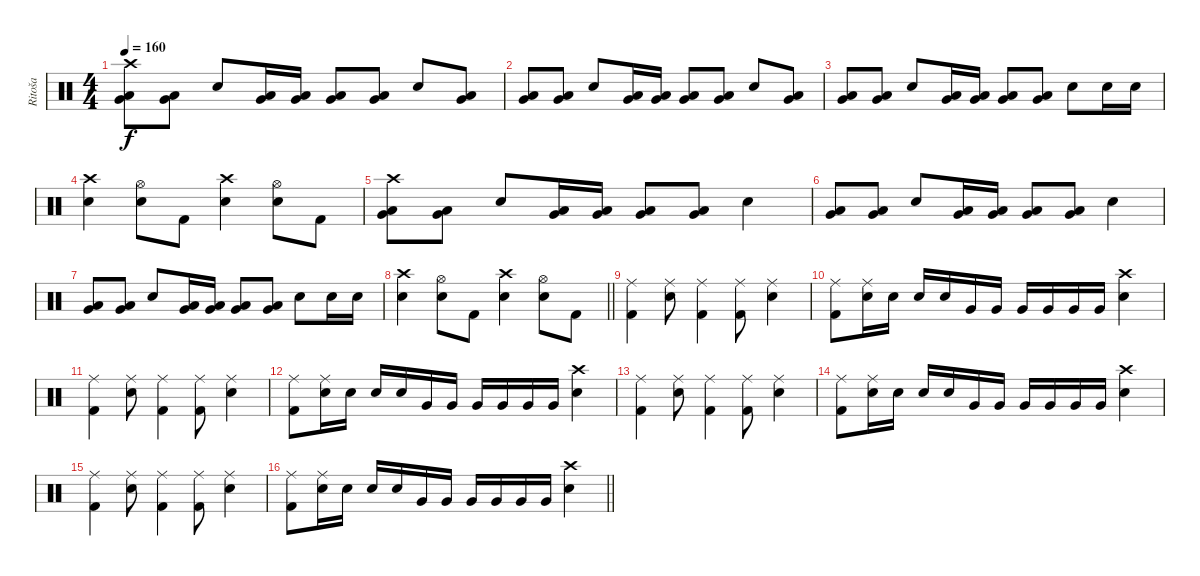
\track ("Ritoša" "Ritoša") {instrument percussion}
\staff {score}
\articulation defaults
\ts (4 4)
\tempo 160
\clef neutral
\ks c
("Crash high (hit)" "Low Floor Tom (hit)" "Very Low Tom (hit)").8{dy f} ("Low Floor Tom (hit)" "Very Low Tom (hit)").8 "Electric Snare (hit)".8 ("Low Floor Tom (hit)" "Very Low Tom (hit)").16 ("Low Floor Tom (hit)" "Very Low Tom (hit)").16 ("Low Floor Tom (hit)" "Very Low Tom (hit)").8 ("Low Floor Tom (hit)" "Very Low Tom (hit)").8 "Electric Snare (hit)".8 ("Low Floor Tom (hit)" "Very Low Tom (hit)").8 |
("Low Floor Tom (hit)" "Very Low Tom (hit)").8 ("Low Floor Tom (hit)" "Very Low Tom (hit)").8 "Electric Snare (hit)".8 ("Low Floor Tom (hit)" "Very Low Tom (hit)").16 ("Low Floor Tom (hit)" "Very Low Tom (hit)").16 ("Low Floor Tom (hit)" "Very Low Tom (hit)").8 ("Low Floor Tom (hit)" "Very Low Tom (hit)").8 "Electric Snare (hit)".8 ("Low Floor Tom (hit)" "Very Low Tom (hit)").8 |
("Low Floor Tom (hit)" "Very Low Tom (hit)").8 ("Low Floor Tom (hit)" "Very Low Tom (hit)").8 "Electric Snare (hit)".8 ("Low Floor Tom (hit)" "Very Low Tom (hit)").16 ("Low Floor Tom (hit)" "Very Low Tom (hit)").16 ("Low Floor Tom (hit)" "Very Low Tom (hit)").8 ("Low Floor Tom (hit)" "Very Low Tom (hit)").8 "Electric Snare (hit)".8 "Electric Snare (hit)".16 "Electric Snare (hit)".16 |
("Crash high (hit)" "Electric Snare (hit)").4 ("Hi-Hat (open)" "Electric Snare (hit)").8 "Kick (hit) 2".8 ("Crash high (hit)" "Electric Snare (hit)").4 ("Hi-Hat (open)" "Electric Snare (hit)").8 "Kick (hit) 2".8 |
("Crash high (hit)" "Low Floor Tom (hit)" "Very Low Tom (hit)").8 ("Low Floor Tom (hit)" "Very Low Tom (hit)").8 "Electric Snare (hit)".8 ("Low Floor Tom (hit)" "Very Low Tom (hit)").16 ("Low Floor Tom (hit)" "Very Low Tom (hit)").16 ("Low Floor Tom (hit)" "Very Low Tom (hit)").8 ("Low Floor Tom (hit)" "Very Low Tom (hit)").8 "Electric Snare (hit)".4 |
("Low Floor Tom (hit)" "Very Low Tom (hit)").8 ("Low Floor Tom (hit)" "Very Low Tom (hit)").8 "Electric Snare (hit)".8 ("Low Floor Tom (hit)" "Very Low Tom (hit)").16 ("Low Floor Tom (hit)" "Very Low Tom (hit)").16 ("Low Floor Tom (hit)" "Very Low Tom (hit)").8 ("Low Floor Tom (hit)" "Very Low Tom (hit)").8 "Electric Snare (hit)".4 |
("Low Floor Tom (hit)" "Very Low Tom (hit)").8 ("Low Floor Tom (hit)" "Very Low Tom (hit)").8 "Electric Snare (hit)".8 ("Low Floor Tom (hit)" "Very Low Tom (hit)").16 ("Low Floor Tom (hit)" "Very Low Tom (hit)").16 ("Low Floor Tom (hit)" "Very Low Tom (hit)").8 ("Low Floor Tom (hit)" "Very Low Tom (hit)").8 "Electric Snare (hit)".8 "Electric Snare (hit)".16 "Electric Snare (hit)".16 |
\barLineRight lightlight
("Crash high (hit)" "Electric Snare (hit)").4 ("Hi-Hat (open)" "Electric Snare (hit)").8 "Kick (hit) 2".8 ("Crash high (hit)" "Electric Snare (hit)").4 ("Hi-Hat (open)" "Electric Snare (hit)").8 "Kick (hit) 2".8 |
("Ride (middle)" "Kick (hit) 2").4 ("Ride (middle)" "Electric Snare (hit)").8 ("Ride (middle)" "Kick (hit) 2").4 ("Ride (middle)" "Kick (hit) 2").8 ("Ride (middle)" "Electric Snare (hit)").4 |
("Ride (middle)" "Kick (hit) 2").8 ("Ride (middle)" "Electric Snare (hit)").16 "Electric Snare (hit)".16 "Electric Snare (hit)".16 "Electric Snare (hit)".16 "Very Low Tom (hit)".16 "Very Low Tom (hit)".16 "Very Low Tom (hit)".16 "Very Low Tom (hit)".16 "Very Low Tom (hit)".16 "Very Low Tom (hit)".16 ("Crash high (hit)" "Electric Snare (hit)").4 |
("Ride (middle)" "Kick (hit) 2").4 ("Ride (middle)" "Electric Snare (hit)").8 ("Ride (middle)" "Kick (hit) 2").4 ("Ride (middle)" "Kick (hit) 2").8 ("Ride (middle)" "Electric Snare (hit)").4 |
("Ride (middle)" "Kick (hit) 2").8 ("Ride (middle)" "Electric Snare (hit)").16 "Electric Snare (hit)".16 "Electric Snare (hit)".16 "Electric Snare (hit)".16 "Very Low Tom (hit)".16 "Very Low Tom (hit)".16 "Very Low Tom (hit)".16 "Very Low Tom (hit)".16 "Very Low Tom (hit)".16 "Very Low Tom (hit)".16 ("Crash high (hit)" "Electric Snare (hit)").4 |
("Ride (middle)" "Kick (hit) 2").4 ("Ride (middle)" "Electric Snare (hit)").8 ("Ride (middle)" "Kick (hit) 2").4 ("Ride (middle)" "Kick (hit) 2").8 ("Ride (middle)" "Electric Snare (hit)").4 |
("Ride (middle)" "Kick (hit) 2").8 ("Ride (middle)" "Electric Snare (hit)").16 "Electric Snare (hit)".16 "Electric Snare (hit)".16 "Electric Snare (hit)".16 "Very Low Tom (hit)".16 "Very Low Tom (hit)".16 "Very Low Tom (hit)".16 "Very Low Tom (hit)".16 "Very Low Tom (hit)".16 "Very Low Tom (hit)".16 ("Crash high (hit)" "Electric Snare (hit)").4 |
("Ride (middle)" "Kick (hit) 2").4 ("Ride (middle)" "Electric Snare (hit)").8 ("Ride (middle)" "Kick (hit) 2").4 ("Ride (middle)" "Kick (hit) 2").8 ("Ride (middle)" "Electric Snare (hit)").4 |
\barLineRight lightlight
("Ride (middle)" "Kick (hit) 2").8 ("Ride (middle)" "Electric Snare (hit)").16 "Electric Snare (hit)".16 "Electric Snare (hit)".16 "Electric Snare (hit)".16 "Very Low Tom (hit)".16 "Very Low Tom (hit)".16 "Very Low Tom (hit)".16 "Very Low Tom (hit)".16 "Very Low Tom (hit)".16 "Very Low Tom (hit)".16 ("Crash high (hit)" "Electric Snare (hit)").4
